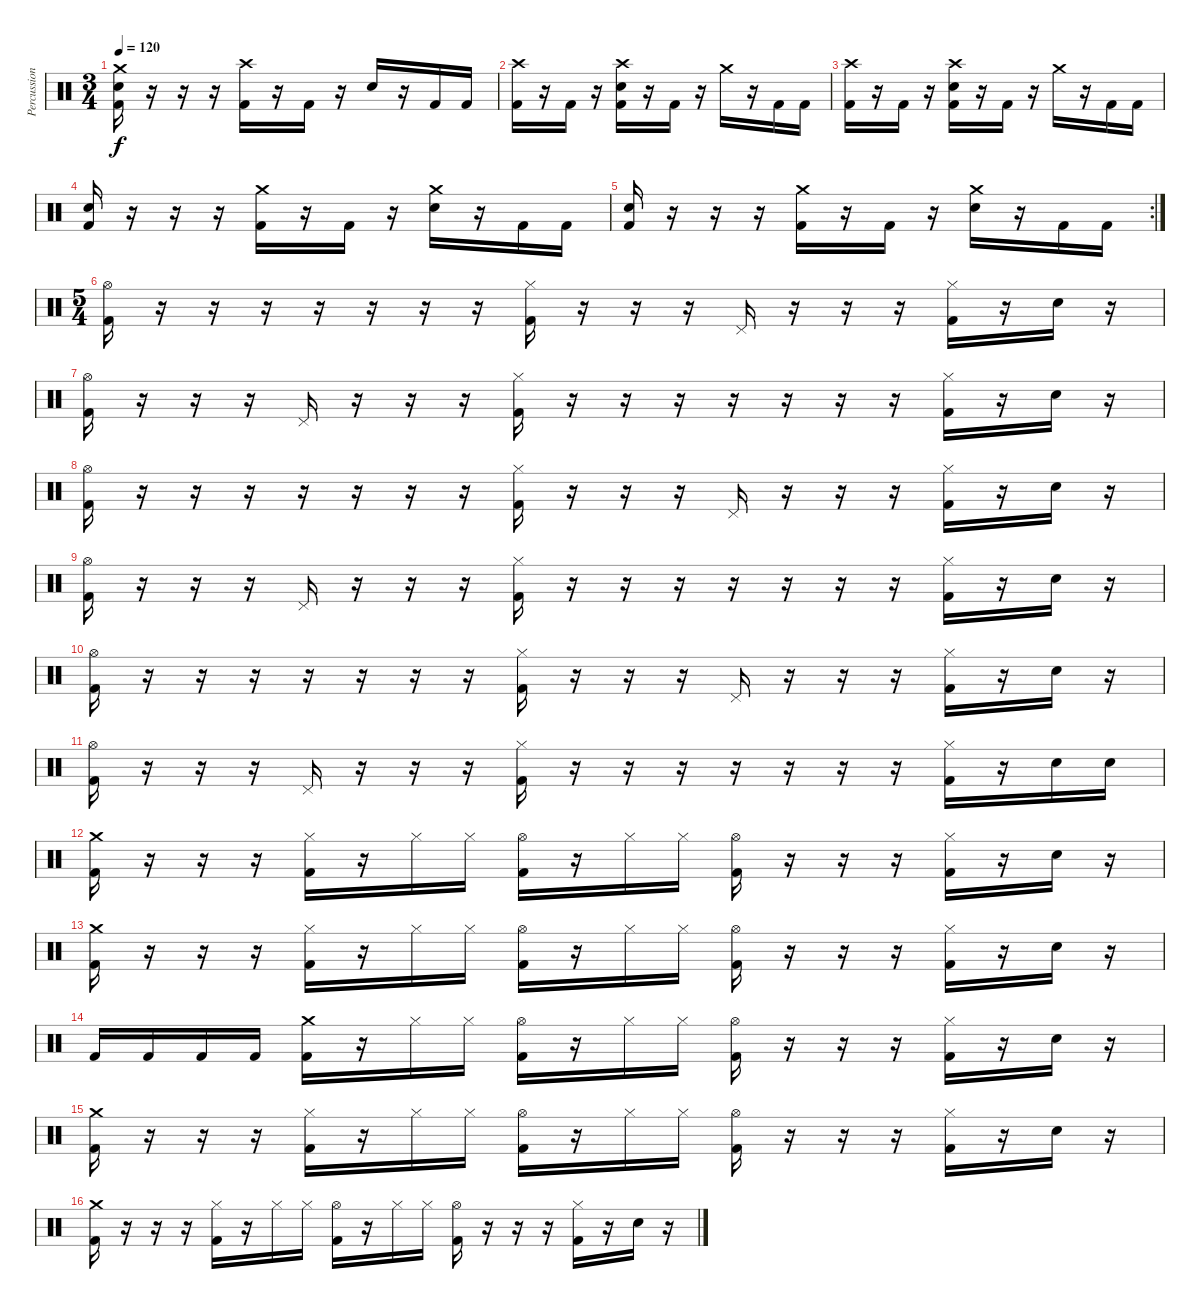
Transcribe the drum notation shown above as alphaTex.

\track ("Percussion" "Percussion") {instrument percussion}
\staff {score}
\articulation defaults
\ts (3 4)
\tempo 120
\clef neutral
\ks c
("Crash medium (hit)" "Electric Snare (hit)" "Kick (hit) 2").16{dy f} r.16 r.16 r.16 ("Crash high (hit)" "Kick (hit) 2").16 r.16 "Kick (hit) 2".16 r.16 "Electric Snare (hit)".16 r.16 "Kick (hit) 2".16 "Kick (hit) 2".16 |
("Crash high (hit)" "Kick (hit) 2").16 r.16 "Kick (hit) 2".16 r.16 ("Crash high (hit)" "Electric Snare (hit)" "Kick (hit) 2").16 r.16 "Kick (hit) 2".16 r.16 "Crash medium (hit)".16 r.16 "Kick (hit) 2".16 "Kick (hit) 2".16 |
("Crash high (hit)" "Kick (hit) 2").16 r.16 "Kick (hit) 2".16 r.16 ("Crash high (hit)" "Electric Snare (hit)" "Kick (hit) 2").16 r.16 "Kick (hit) 2".16 r.16 "Crash medium (hit)".16 r.16 "Kick (hit) 2".16 "Kick (hit) 2".16 |
("Electric Snare (hit)" "Kick (hit) 2").16 r.16 r.16 r.16 ("Crash medium (hit)" "Kick (hit) 2").16 r.16 "Kick (hit) 2".16 r.16 ("Crash medium (hit)" "Electric Snare (hit)").16 r.16 "Kick (hit) 2".16 "Kick (hit) 2".16 |
\rc 2
("Electric Snare (hit)" "Kick (hit) 2").16 r.16 r.16 r.16 ("Crash medium (hit)" "Kick (hit) 2").16 r.16 "Kick (hit) 2".16 r.16 ("Crash medium (hit)" "Electric Snare (hit)").16 r.16 "Kick (hit) 2".16 "Kick (hit) 2".16 |
\ts (5 4)
("Hi-Hat (open)" "Kick (hit) 2").16 r.16 r.16 r.16 r.16 r.16 r.16 r.16 ("Hi-Hat (closed)" "Kick (hit) 2").16 r.16 r.16 r.16 "Pedal Hi-Hat (hit)".16 r.16 r.16 r.16 ("Hi-Hat (closed)" "Kick (hit) 2").16 r.16 "Electric Snare (hit)".16 r.16 |
("Hi-Hat (open)" "Kick (hit) 2").16 r.16 r.16 r.16 "Pedal Hi-Hat (hit)".16 r.16 r.16 r.16 ("Hi-Hat (closed)" "Kick (hit) 2").16 r.16 r.16 r.16 r.16 r.16 r.16 r.16 ("Hi-Hat (closed)" "Kick (hit) 2").16 r.16 "Electric Snare (hit)".16 r.16 |
("Hi-Hat (open)" "Kick (hit) 2").16 r.16 r.16 r.16 r.16 r.16 r.16 r.16 ("Hi-Hat (closed)" "Kick (hit) 2").16 r.16 r.16 r.16 "Pedal Hi-Hat (hit)".16 r.16 r.16 r.16 ("Hi-Hat (closed)" "Kick (hit) 2").16 r.16 "Electric Snare (hit)".16 r.16 |
("Hi-Hat (open)" "Kick (hit) 2").16 r.16 r.16 r.16 "Pedal Hi-Hat (hit)".16 r.16 r.16 r.16 ("Hi-Hat (closed)" "Kick (hit) 2").16 r.16 r.16 r.16 r.16 r.16 r.16 r.16 ("Hi-Hat (closed)" "Kick (hit) 2").16 r.16 "Electric Snare (hit)".16 r.16 |
("Hi-Hat (open)" "Kick (hit) 2").16 r.16 r.16 r.16 r.16 r.16 r.16 r.16 ("Hi-Hat (closed)" "Kick (hit) 2").16 r.16 r.16 r.16 "Pedal Hi-Hat (hit)".16 r.16 r.16 r.16 ("Hi-Hat (closed)" "Kick (hit) 2").16 r.16 "Electric Snare (hit)".16 r.16 |
("Hi-Hat (open)" "Kick (hit) 2").16 r.16 r.16 r.16 "Pedal Hi-Hat (hit)".16 r.16 r.16 r.16 ("Hi-Hat (closed)" "Kick (hit) 2").16 r.16 r.16 r.16 r.16 r.16 r.16 r.16 ("Hi-Hat (closed)" "Kick (hit) 2").16 r.16 "Electric Snare (hit)".16 "Electric Snare (hit)".16 |
("Crash medium (hit)" "Kick (hit) 2").16 r.16 r.16 r.16 ("Hi-Hat (closed)" "Kick (hit) 2").16 r.16 "Hi-Hat (closed)".16 "Hi-Hat (closed)".16 ("Hi-Hat (open)" "Kick (hit) 2").16 r.16 "Hi-Hat (closed)".16 "Hi-Hat (closed)".16 ("Hi-Hat (open)" "Kick (hit) 2").16 r.16 r.16 r.16 ("Hi-Hat (closed)" "Kick (hit) 2").16 r.16 "Electric Snare (hit)".16 r.16 |
("Crash medium (hit)" "Kick (hit) 2").16 r.16 r.16 r.16 ("Hi-Hat (closed)" "Kick (hit) 2").16 r.16 "Hi-Hat (closed)".16 "Hi-Hat (closed)".16 ("Hi-Hat (open)" "Kick (hit) 2").16 r.16 "Hi-Hat (closed)".16 "Hi-Hat (closed)".16 ("Hi-Hat (open)" "Kick (hit) 2").16 r.16 r.16 r.16 ("Hi-Hat (closed)" "Kick (hit) 2").16 r.16 "Electric Snare (hit)".16 r.16 |
"Kick (hit) 2".16 "Kick (hit) 2".16 "Kick (hit) 2".16 "Kick (hit) 2".16 ("Crash medium (hit)" "Kick (hit) 2").16 r.16 "Hi-Hat (closed)".16 "Hi-Hat (closed)".16 ("Hi-Hat (open)" "Kick (hit) 2").16 r.16 "Hi-Hat (closed)".16 "Hi-Hat (closed)".16 ("Hi-Hat (open)" "Kick (hit) 2").16 r.16 r.16 r.16 ("Hi-Hat (closed)" "Kick (hit) 2").16 r.16 "Electric Snare (hit)".16 r.16 |
("Crash medium (hit)" "Kick (hit) 2").16 r.16 r.16 r.16 ("Hi-Hat (closed)" "Kick (hit) 2").16 r.16 "Hi-Hat (closed)".16 "Hi-Hat (closed)".16 ("Hi-Hat (open)" "Kick (hit) 2").16 r.16 "Hi-Hat (closed)".16 "Hi-Hat (closed)".16 ("Hi-Hat (open)" "Kick (hit) 2").16 r.16 r.16 r.16 ("Hi-Hat (closed)" "Kick (hit) 2").16 r.16 "Electric Snare (hit)".16 r.16 |
("Crash medium (hit)" "Kick (hit) 2").16 r.16 r.16 r.16 ("Hi-Hat (closed)" "Kick (hit) 2").16 r.16 "Hi-Hat (closed)".16 "Hi-Hat (closed)".16 ("Hi-Hat (open)" "Kick (hit) 2").16 r.16 "Hi-Hat (closed)".16 "Hi-Hat (closed)".16 ("Hi-Hat (open)" "Kick (hit) 2").16 r.16 r.16 r.16 ("Hi-Hat (closed)" "Kick (hit) 2").16 r.16 "Electric Snare (hit)".16 r.16
